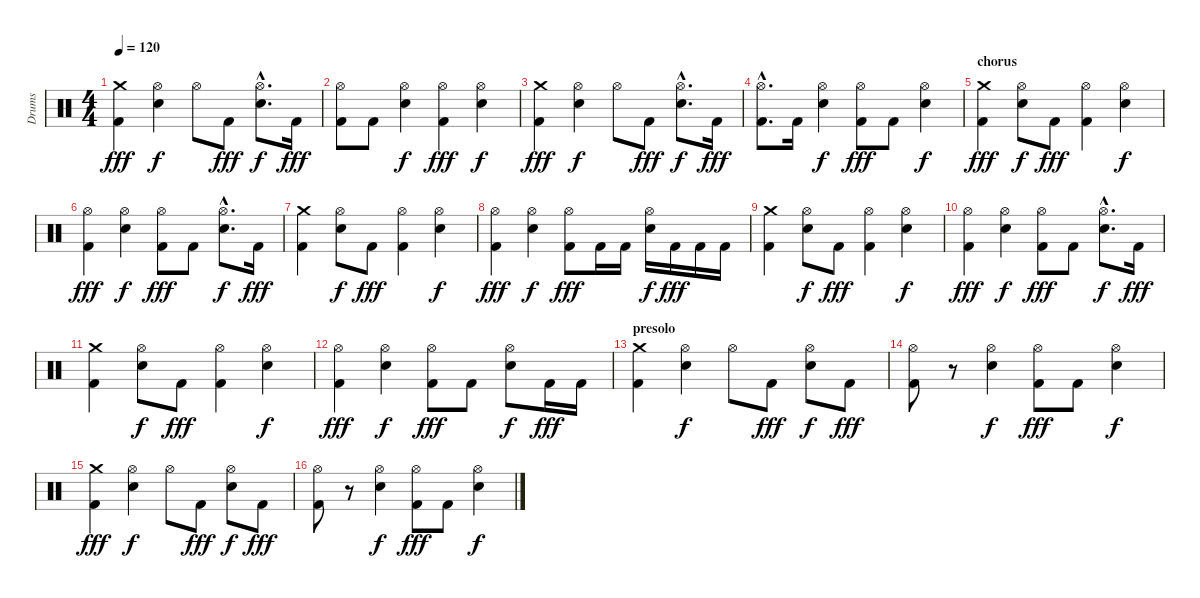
\track ("Drums" "Drums") {instrument percussion}
\staff {score}
\articulation defaults
\ts (4 4)
\tempo 120
\clef neutral
\ks c
("Crash medium (hit)" "Kick (hit) 2").4{dy fff} ("Hi-Hat (open)" "Electric Snare (hit)").4{dy f} "Hi-Hat (open)".8 "Kick (hit) 2".8{dy fff} ("Hi-Hat (open)"{hac} "Electric Snare (hit)"{hac}).8{d dy f} "Kick (hit) 2".16{dy fff} |
("Hi-Hat (open)" "Kick (hit) 2").8 "Kick (hit) 2".8 ("Hi-Hat (open)" "Electric Snare (hit)").4{dy f} ("Hi-Hat (open)" "Kick (hit) 2").4{dy fff} ("Hi-Hat (open)" "Electric Snare (hit)").4{dy f} |
("Crash medium (hit)" "Kick (hit) 2").4{dy fff} ("Hi-Hat (open)" "Electric Snare (hit)").4{dy f} "Hi-Hat (open)".8 "Kick (hit) 2".8{dy fff} ("Hi-Hat (open)"{hac} "Electric Snare (hit)"{hac}).8{d dy f} "Kick (hit) 2".16{dy fff} |
("Hi-Hat (open)"{hac} "Kick (hit) 2"{hac}).8{d} "Kick (hit) 2".16 ("Hi-Hat (open)" "Electric Snare (hit)").4{dy f} ("Hi-Hat (open)" "Kick (hit) 2").8{dy fff} "Kick (hit) 2".8 ("Hi-Hat (open)" "Electric Snare (hit)").4{dy f} |
\section ("" "chorus")
("Crash medium (hit)" "Kick (hit) 2").4{dy fff} ("Hi-Hat (open)" "Electric Snare (hit)").8{dy f} "Kick (hit) 2".8{dy fff} ("Hi-Hat (open)" "Kick (hit) 2").4 ("Hi-Hat (open)" "Electric Snare (hit)").4{dy f} |
("Hi-Hat (open)" "Kick (hit) 2").4{dy fff} ("Hi-Hat (open)" "Electric Snare (hit)").4{dy f} ("Hi-Hat (open)" "Kick (hit) 2").8{dy fff} "Kick (hit) 2".8 ("Hi-Hat (open)"{hac} "Electric Snare (hit)"{hac}).8{d dy f} "Kick (hit) 2".16{dy fff} |
("Crash medium (hit)" "Kick (hit) 2").4 ("Hi-Hat (open)" "Electric Snare (hit)").8{dy f} "Kick (hit) 2".8{dy fff} ("Hi-Hat (open)" "Kick (hit) 2").4 ("Hi-Hat (open)" "Electric Snare (hit)").4{dy f} |
("Hi-Hat (open)" "Kick (hit) 2").4{dy fff} ("Hi-Hat (open)" "Electric Snare (hit)").4{dy f} ("Hi-Hat (open)" "Kick (hit) 2").8{dy fff} "Kick (hit) 2".16 "Kick (hit) 2".16 ("Hi-Hat (open)" "Electric Snare (hit)").16{dy f} "Kick (hit) 2".16{dy fff} "Kick (hit) 2".16 "Kick (hit) 2".16 |
("Crash medium (hit)" "Kick (hit) 2").4 ("Hi-Hat (open)" "Electric Snare (hit)").8{dy f} "Kick (hit) 2".8{dy fff} ("Hi-Hat (open)" "Kick (hit) 2").4 ("Hi-Hat (open)" "Electric Snare (hit)").4{dy f} |
("Hi-Hat (open)" "Kick (hit) 2").4{dy fff} ("Hi-Hat (open)" "Electric Snare (hit)").4{dy f} ("Hi-Hat (open)" "Kick (hit) 2").8{dy fff} "Kick (hit) 2".8 ("Hi-Hat (open)"{hac} "Electric Snare (hit)"{hac}).8{d dy f} "Kick (hit) 2".16{dy fff} |
("Crash medium (hit)" "Kick (hit) 2").4 ("Hi-Hat (open)" "Electric Snare (hit)").8{dy f} "Kick (hit) 2".8{dy fff} ("Hi-Hat (open)" "Kick (hit) 2").4 ("Hi-Hat (open)" "Electric Snare (hit)").4{dy f} |
("Hi-Hat (open)" "Kick (hit) 2").4{dy fff} ("Hi-Hat (open)" "Electric Snare (hit)").4{dy f} ("Hi-Hat (open)" "Kick (hit) 2").8{dy fff} "Kick (hit) 2".8 ("Hi-Hat (open)" "Electric Snare (hit)").8{dy f} "Kick (hit) 2".16{dy fff} "Kick (hit) 2".16 |
\section ("" "presolo")
("Crash medium (hit)" "Kick (hit) 2").4 ("Hi-Hat (open)" "Electric Snare (hit)").4{dy f} "Hi-Hat (open)".8 "Kick (hit) 2".8{dy fff} ("Hi-Hat (open)" "Electric Snare (hit)").8{dy f} "Kick (hit) 2".8{dy fff} |
("Hi-Hat (open)" "Kick (hit) 2").8 r.8 ("Hi-Hat (open)" "Electric Snare (hit)").4{dy f} ("Hi-Hat (open)" "Kick (hit) 2").8{dy fff} "Kick (hit) 2".8 ("Hi-Hat (open)" "Electric Snare (hit)").4{dy f} |
("Crash medium (hit)" "Kick (hit) 2").4{dy fff} ("Hi-Hat (open)" "Electric Snare (hit)").4{dy f} "Hi-Hat (open)".8 "Kick (hit) 2".8{dy fff} ("Hi-Hat (open)" "Electric Snare (hit)").8{dy f} "Kick (hit) 2".8{dy fff} |
("Hi-Hat (open)" "Kick (hit) 2").8 r.8 ("Hi-Hat (open)" "Electric Snare (hit)").4{dy f} ("Hi-Hat (open)" "Kick (hit) 2").8{dy fff} "Kick (hit) 2".8 ("Hi-Hat (open)" "Electric Snare (hit)").4{dy f}
